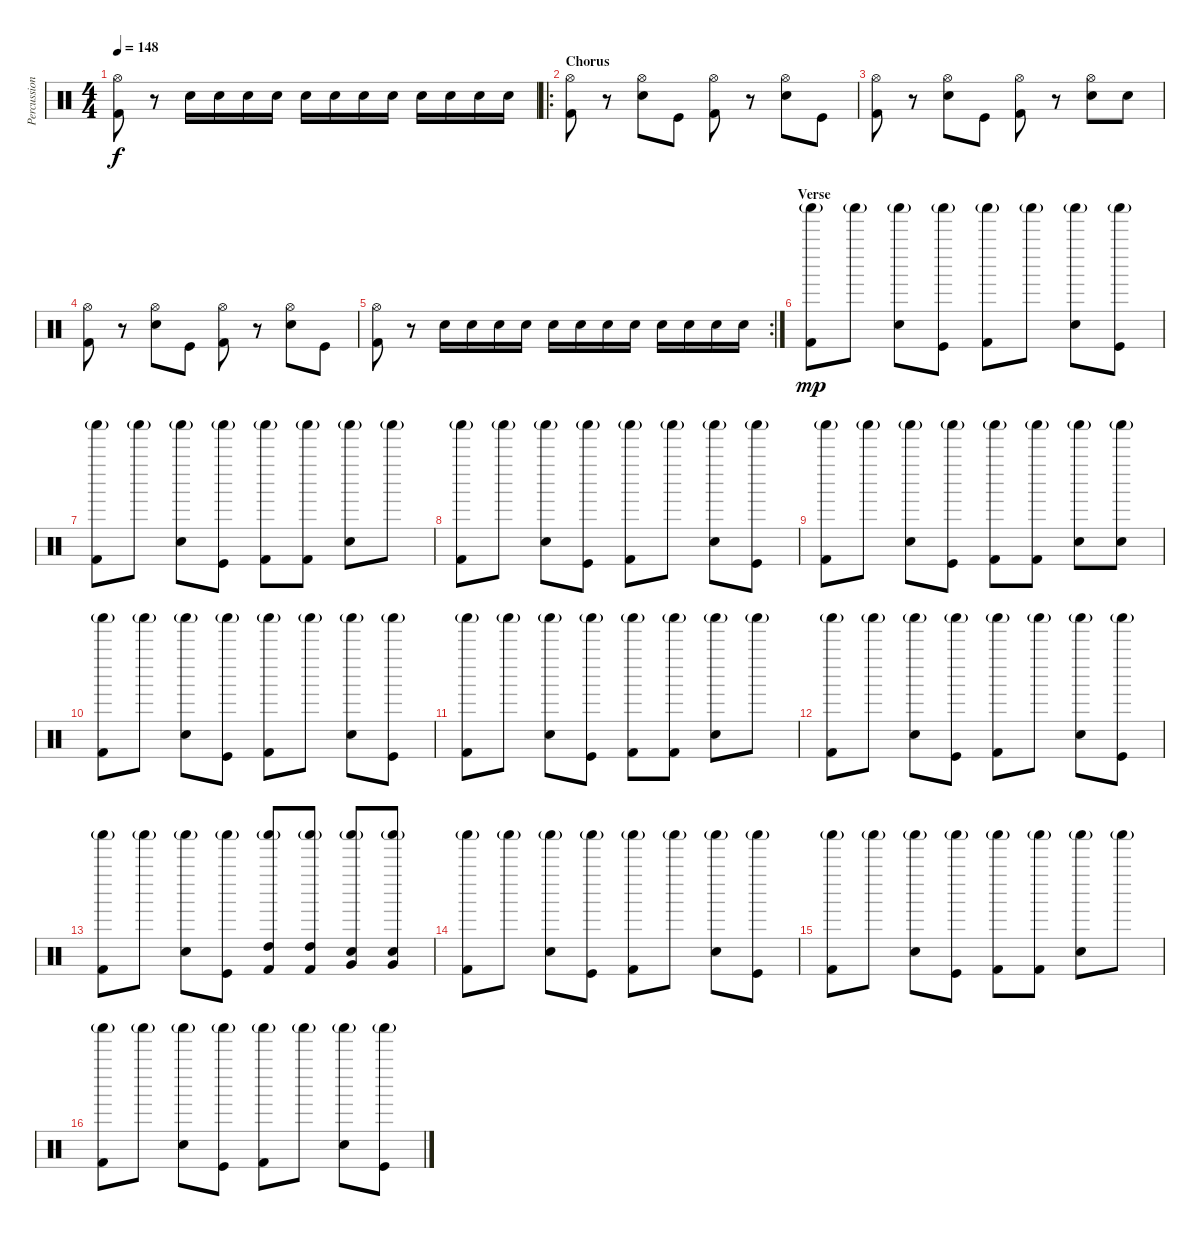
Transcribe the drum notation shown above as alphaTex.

\track ("Percussion" "Percussion") {instrument percussion}
\staff {score}
\articulation defaults
\ts (4 4)
\tempo 148
\clef neutral
\ks c
("Hi-Hat (open)" "Kick (hit) 2").8{dy f} r.8 "Snare (hit) 2".16 "Snare (hit) 2".16 "Snare (hit) 2".16 "Snare (hit) 2".16 "Snare (hit) 2".16 "Snare (hit) 2".16 "Snare (hit) 2".16 "Snare (hit) 2".16 "Snare (hit) 2".16 "Snare (hit) 2".16 "Snare (hit) 2".16 "Snare (hit) 2".16 |
\ro
\section ("" "Chorus")
("Hi-Hat (open)" "Kick (hit) 2").8 r.8 ("Hi-Hat (open)" "Snare (hit) 2").8 "Kick (hit)".8 ("Hi-Hat (open)" "Kick (hit) 2").8 r.8 ("Hi-Hat (open)" "Snare (hit) 2").8 "Kick (hit)".8 |
("Hi-Hat (open)" "Kick (hit) 2").8 r.8 ("Hi-Hat (open)" "Snare (hit) 2").8 "Kick (hit)".8 ("Hi-Hat (open)" "Kick (hit) 2").8 r.8 ("Hi-Hat (open)" "Snare (hit) 2").8 "Snare (hit) 2".8 |
("Hi-Hat (open)" "Kick (hit) 2").8 r.8 ("Hi-Hat (open)" "Snare (hit) 2").8 "Kick (hit)".8 ("Hi-Hat (open)" "Kick (hit) 2").8 r.8 ("Hi-Hat (open)" "Snare (hit) 2").8 "Kick (hit)".8 |
\rc 2
("Hi-Hat (open)" "Kick (hit) 2").8 r.8 "Snare (hit) 2".16 "Snare (hit) 2".16 "Snare (hit) 2".16 "Snare (hit) 2".16 "Snare (hit) 2".16 "Snare (hit) 2".16 "Snare (hit) 2".16 "Snare (hit) 2".16 "Snare (hit) 2".16 "Snare (hit) 2".16 "Snare (hit) 2".16 "Snare (hit) 2".16 |
\section ("" "Verse")
("Shaker (hit)"{g} "Kick (hit) 2").8{dy mp} "Shaker (hit)"{g}.8 ("Shaker (hit)"{g} "Snare (hit) 2").8 ("Shaker (hit)"{g} "Kick (hit)").8 ("Shaker (hit)"{g} "Kick (hit) 2").8 "Shaker (hit)"{g}.8 ("Shaker (hit)"{g} "Snare (hit) 2").8 ("Shaker (hit)"{g} "Kick (hit)").8 |
("Shaker (hit)"{g} "Kick (hit) 2").8 "Shaker (hit)"{g}.8 ("Shaker (hit)"{g} "Snare (hit) 2").8 ("Shaker (hit)"{g} "Kick (hit)").8 ("Shaker (hit)"{g} "Kick (hit) 2").8 ("Shaker (hit)"{g} "Kick (hit) 2").8 ("Shaker (hit)"{g} "Snare (hit) 2").8 "Shaker (hit)"{g}.8 |
("Shaker (hit)"{g} "Kick (hit) 2").8 "Shaker (hit)"{g}.8 ("Shaker (hit)"{g} "Snare (hit) 2").8 ("Shaker (hit)"{g} "Kick (hit)").8 ("Shaker (hit)"{g} "Kick (hit) 2").8 "Shaker (hit)"{g}.8 ("Shaker (hit)"{g} "Snare (hit) 2").8 ("Shaker (hit)"{g} "Kick (hit)").8 |
("Shaker (hit)"{g} "Kick (hit) 2").8 "Shaker (hit)"{g}.8 ("Shaker (hit)"{g} "Snare (hit) 2").8 ("Shaker (hit)"{g} "Kick (hit)").8 ("Shaker (hit)"{g} "Kick (hit) 2").8 ("Shaker (hit)"{g} "Kick (hit) 2").8 ("Shaker (hit)"{g} "Snare (hit) 2").8 ("Shaker (hit)"{g} "Snare (hit) 2").8 |
("Shaker (hit)"{g} "Kick (hit) 2").8 "Shaker (hit)"{g}.8 ("Shaker (hit)"{g} "Snare (hit) 2").8 ("Shaker (hit)"{g} "Kick (hit)").8 ("Shaker (hit)"{g} "Kick (hit) 2").8 "Shaker (hit)"{g}.8 ("Shaker (hit)"{g} "Snare (hit) 2").8 ("Shaker (hit)"{g} "Kick (hit)").8 |
("Shaker (hit)"{g} "Kick (hit) 2").8 "Shaker (hit)"{g}.8 ("Shaker (hit)"{g} "Snare (hit) 2").8 ("Shaker (hit)"{g} "Kick (hit)").8 ("Shaker (hit)"{g} "Kick (hit) 2").8 ("Shaker (hit)"{g} "Kick (hit) 2").8 ("Shaker (hit)"{g} "Snare (hit) 2").8 "Shaker (hit)"{g}.8 |
("Shaker (hit)"{g} "Kick (hit) 2").8 "Shaker (hit)"{g}.8 ("Shaker (hit)"{g} "Snare (hit) 2").8 ("Shaker (hit)"{g} "Kick (hit)").8 ("Shaker (hit)"{g} "Kick (hit) 2").8 "Shaker (hit)"{g}.8 ("Shaker (hit)"{g} "Snare (hit) 2").8 ("Shaker (hit)"{g} "Kick (hit)").8 |
("Shaker (hit)"{g} "Kick (hit) 2").8 "Shaker (hit)"{g}.8 ("Shaker (hit)"{g} "Snare (hit) 2").8 ("Shaker (hit)"{g} "Kick (hit)").8 ("Shaker (hit)"{g} "High Tom (hit)" "Kick (hit) 2").8 ("Shaker (hit)"{g} "High Tom (hit)" "Kick (hit) 2").8 ("Shaker (hit)"{g} "Very Low Tom (hit)" "Snare (hit) 2").8 ("Shaker (hit)"{g} "Very Low Tom (hit)" "Snare (hit) 2").8 |
("Shaker (hit)"{g} "Kick (hit) 2").8 "Shaker (hit)"{g}.8 ("Shaker (hit)"{g} "Snare (hit) 2").8 ("Shaker (hit)"{g} "Kick (hit)").8 ("Shaker (hit)"{g} "Kick (hit) 2").8 "Shaker (hit)"{g}.8 ("Shaker (hit)"{g} "Snare (hit) 2").8 ("Shaker (hit)"{g} "Kick (hit)").8 |
("Shaker (hit)"{g} "Kick (hit) 2").8 "Shaker (hit)"{g}.8 ("Shaker (hit)"{g} "Snare (hit) 2").8 ("Shaker (hit)"{g} "Kick (hit)").8 ("Shaker (hit)"{g} "Kick (hit) 2").8 ("Shaker (hit)"{g} "Kick (hit) 2").8 ("Shaker (hit)"{g} "Snare (hit) 2").8 "Shaker (hit)"{g}.8 |
("Shaker (hit)"{g} "Kick (hit) 2").8 "Shaker (hit)"{g}.8 ("Shaker (hit)"{g} "Snare (hit) 2").8 ("Shaker (hit)"{g} "Kick (hit)").8 ("Shaker (hit)"{g} "Kick (hit) 2").8 "Shaker (hit)"{g}.8 ("Shaker (hit)"{g} "Snare (hit) 2").8 ("Shaker (hit)"{g} "Kick (hit)").8
